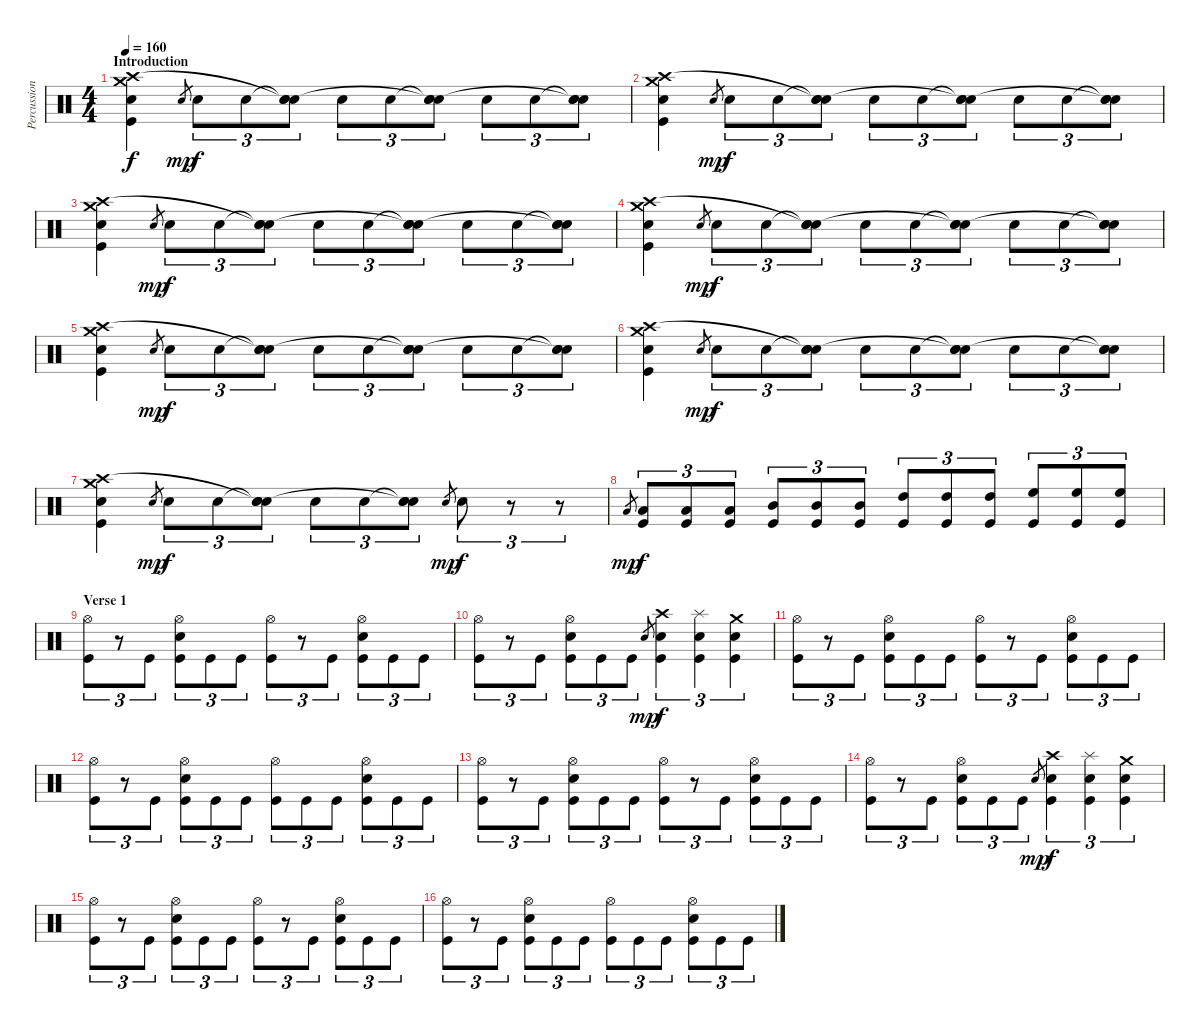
\track ("Percussion" "Percussion") {instrument percussion}
\staff {score}
\articulation defaults
\ts (4 4)
\section ("" "Introduction")
\tempo 160
\clef neutral
\ks c
("Crash medium (hit)" "Crash high (hit)" "Snare (hit) 2" "Kick (hit)").4{dy f} "Snare (hit) 2".8{gr dy mp} "Snare (hit) 2".8{tu (3 2) dy f} "Snare (hit) 2".8{tu (3 2)} ("Snare (hit)"{t} "Snare (hit)"{t} "Snare (hit) 2").8{tu (3 2)} "Snare (hit) 2".8{tu (3 2)} "Snare (hit) 2".8{tu (3 2)} ("Snare (hit)"{t} "Snare (hit)"{t} "Snare (hit) 2").8{tu (3 2)} "Snare (hit) 2".8{tu (3 2)} "Snare (hit) 2".8{tu (3 2)} ("Snare (hit)"{t} "Snare (hit)"{t} "Snare (hit) 2").8{tu (3 2)} |
("Crash medium (hit)" "Crash high (hit)" "Snare (hit) 2" "Kick (hit)").4 "Snare (hit) 2".8{gr dy mp} "Snare (hit) 2".8{tu (3 2) dy f} "Snare (hit) 2".8{tu (3 2)} ("Snare (hit)"{t} "Snare (hit)"{t} "Snare (hit) 2").8{tu (3 2)} "Snare (hit) 2".8{tu (3 2)} "Snare (hit) 2".8{tu (3 2)} ("Snare (hit)"{t} "Snare (hit)"{t} "Snare (hit) 2").8{tu (3 2)} "Snare (hit) 2".8{tu (3 2)} "Snare (hit) 2".8{tu (3 2)} ("Snare (hit)"{t} "Snare (hit)"{t} "Snare (hit) 2").8{tu (3 2)} |
("Crash medium (hit)" "Crash high (hit)" "Snare (hit) 2" "Kick (hit)").4 "Snare (hit) 2".8{gr dy mp} "Snare (hit) 2".8{tu (3 2) dy f} "Snare (hit) 2".8{tu (3 2)} ("Snare (hit)"{t} "Snare (hit)"{t} "Snare (hit) 2").8{tu (3 2)} "Snare (hit) 2".8{tu (3 2)} "Snare (hit) 2".8{tu (3 2)} ("Snare (hit)"{t} "Snare (hit)"{t} "Snare (hit) 2").8{tu (3 2)} "Snare (hit) 2".8{tu (3 2)} "Snare (hit) 2".8{tu (3 2)} ("Snare (hit)"{t} "Snare (hit)"{t} "Snare (hit) 2").8{tu (3 2)} |
("Crash medium (hit)" "Crash high (hit)" "Snare (hit) 2" "Kick (hit)").4 "Snare (hit) 2".8{gr dy mp} "Snare (hit) 2".8{tu (3 2) dy f} "Snare (hit) 2".8{tu (3 2)} ("Snare (hit)"{t} "Snare (hit)"{t} "Snare (hit) 2").8{tu (3 2)} "Snare (hit) 2".8{tu (3 2)} "Snare (hit) 2".8{tu (3 2)} ("Snare (hit)"{t} "Snare (hit)"{t} "Snare (hit) 2").8{tu (3 2)} "Snare (hit) 2".8{tu (3 2)} "Snare (hit) 2".8{tu (3 2)} ("Snare (hit)"{t} "Snare (hit)"{t} "Snare (hit) 2").8{tu (3 2)} |
("Crash medium (hit)" "Crash high (hit)" "Snare (hit) 2" "Kick (hit)").4 "Snare (hit) 2".8{gr dy mp} "Snare (hit) 2".8{tu (3 2) dy f} "Snare (hit) 2".8{tu (3 2)} ("Snare (hit)"{t} "Snare (hit)"{t} "Snare (hit) 2").8{tu (3 2)} "Snare (hit) 2".8{tu (3 2)} "Snare (hit) 2".8{tu (3 2)} ("Snare (hit)"{t} "Snare (hit)"{t} "Snare (hit) 2").8{tu (3 2)} "Snare (hit) 2".8{tu (3 2)} "Snare (hit) 2".8{tu (3 2)} ("Snare (hit)"{t} "Snare (hit)"{t} "Snare (hit) 2").8{tu (3 2)} |
("Crash medium (hit)" "Crash high (hit)" "Snare (hit) 2" "Kick (hit)").4 "Snare (hit) 2".8{gr dy mp} "Snare (hit) 2".8{tu (3 2) dy f} "Snare (hit) 2".8{tu (3 2)} ("Snare (hit)"{t} "Snare (hit)"{t} "Snare (hit) 2").8{tu (3 2)} "Snare (hit) 2".8{tu (3 2)} "Snare (hit) 2".8{tu (3 2)} ("Snare (hit)"{t} "Snare (hit)"{t} "Snare (hit) 2").8{tu (3 2)} "Snare (hit) 2".8{tu (3 2)} "Snare (hit) 2".8{tu (3 2)} ("Snare (hit)"{t} "Snare (hit)"{t} "Snare (hit) 2").8{tu (3 2)} |
("Crash medium (hit)" "Crash high (hit)" "Snare (hit) 2" "Kick (hit)").4 "Snare (hit) 2".8{gr dy mp} "Snare (hit) 2".8{tu (3 2) dy f} "Snare (hit) 2".8{tu (3 2)} ("Snare (hit)"{t} "Snare (hit)"{t} "Snare (hit) 2").8{tu (3 2)} "Snare (hit) 2".8{tu (3 2)} "Snare (hit) 2".8{tu (3 2)} ("Snare (hit)"{t} "Snare (hit)"{t} "Snare (hit) 2").8{tu (3 2)} "Snare (hit) 2".8{gr dy mp} "Snare (hit) 2".8{tu (3 2) dy f} r.8{tu (3 2)} r.8{tu (3 2)} |
"Low Tom (hit)".8{gr dy mp} ("Low Tom (hit)" "Kick (hit)").8{tu (3 2) dy f} ("Low Tom (hit)" "Kick (hit)").8{tu (3 2)} ("Low Tom (hit)" "Kick (hit)").8{tu (3 2)} ("Mid Tom (hit)" "Kick (hit)").8{tu (3 2)} ("Mid Tom (hit)" "Kick (hit)").8{tu (3 2)} ("Mid Tom (hit)" "Kick (hit)").8{tu (3 2)} ("High Tom (hit)" "Kick (hit)").8{tu (3 2)} ("High Tom (hit)" "Kick (hit)").8{tu (3 2)} ("High Tom (hit)" "Kick (hit)").8{tu (3 2)} ("High Floor Tom (hit)" "Kick (hit)").8{tu (3 2)} ("High Floor Tom (hit)" "Kick (hit)").8{tu (3 2)} ("High Floor Tom (hit)" "Kick (hit)").8{tu (3 2)} |
\section ("" "Verse 1")
("Hi-Hat (open)" "Kick (hit)").8{tu (3 2)} r.8{tu (3 2)} "Kick (hit)".8{tu (3 2)} ("Hi-Hat (open)" "Snare (hit) 2" "Kick (hit)").8{tu (3 2)} "Kick (hit)".8{tu (3 2)} "Kick (hit)".8{tu (3 2)} ("Hi-Hat (open)" "Kick (hit)").8{tu (3 2)} r.8{tu (3 2)} "Kick (hit)".8{tu (3 2)} ("Hi-Hat (open)" "Snare (hit) 2" "Kick (hit)").8{tu (3 2)} "Kick (hit)".8{tu (3 2)} "Kick (hit)".8{tu (3 2)} |
("Hi-Hat (open)" "Kick (hit)").8{tu (3 2)} r.8{tu (3 2)} "Kick (hit)".8{tu (3 2)} ("Hi-Hat (open)" "Snare (hit) 2" "Kick (hit)").8{tu (3 2)} "Kick (hit)".8{tu (3 2)} "Kick (hit)".8{tu (3 2)} "Snare (hit) 2".8{gr dy mp} ("Snare (hit) 2" "Crash high (hit)" "Kick (hit)").4{tu (3 2) dy f} ("Snare (hit) 2" "Splash (hit)" "Kick (hit)").4{tu (3 2)} ("Snare (hit) 2" "Crash medium (hit)" "Kick (hit)").4{tu (3 2)} |
("Hi-Hat (open)" "Kick (hit)").8{tu (3 2)} r.8{tu (3 2)} "Kick (hit)".8{tu (3 2)} ("Hi-Hat (open)" "Snare (hit) 2" "Kick (hit)").8{tu (3 2)} "Kick (hit)".8{tu (3 2)} "Kick (hit)".8{tu (3 2)} ("Hi-Hat (open)" "Kick (hit)").8{tu (3 2)} r.8{tu (3 2)} "Kick (hit)".8{tu (3 2)} ("Hi-Hat (open)" "Snare (hit) 2" "Kick (hit)").8{tu (3 2)} "Kick (hit)".8{tu (3 2)} "Kick (hit)".8{tu (3 2)} |
("Hi-Hat (open)" "Kick (hit)").8{tu (3 2)} r.8{tu (3 2)} "Kick (hit)".8{tu (3 2)} ("Hi-Hat (open)" "Snare (hit) 2" "Kick (hit)").8{tu (3 2)} "Kick (hit)".8{tu (3 2)} "Kick (hit)".8{tu (3 2)} ("Hi-Hat (open)" "Kick (hit)").8{tu (3 2)} "Kick (hit)".8{tu (3 2)} "Kick (hit)".8{tu (3 2)} ("Hi-Hat (open)" "Snare (hit) 2" "Kick (hit)").8{tu (3 2)} "Kick (hit)".8{tu (3 2)} "Kick (hit)".8{tu (3 2)} |
("Hi-Hat (open)" "Kick (hit)").8{tu (3 2)} r.8{tu (3 2)} "Kick (hit)".8{tu (3 2)} ("Hi-Hat (open)" "Snare (hit) 2" "Kick (hit)").8{tu (3 2)} "Kick (hit)".8{tu (3 2)} "Kick (hit)".8{tu (3 2)} ("Hi-Hat (open)" "Kick (hit)").8{tu (3 2)} r.8{tu (3 2)} "Kick (hit)".8{tu (3 2)} ("Hi-Hat (open)" "Snare (hit) 2" "Kick (hit)").8{tu (3 2)} "Kick (hit)".8{tu (3 2)} "Kick (hit)".8{tu (3 2)} |
("Hi-Hat (open)" "Kick (hit)").8{tu (3 2)} r.8{tu (3 2)} "Kick (hit)".8{tu (3 2)} ("Hi-Hat (open)" "Snare (hit) 2" "Kick (hit)").8{tu (3 2)} "Kick (hit)".8{tu (3 2)} "Kick (hit)".8{tu (3 2)} "Snare (hit) 2".8{gr dy mp} ("Snare (hit) 2" "Crash high (hit)" "Kick (hit)").4{tu (3 2) dy f} ("Snare (hit) 2" "Splash (hit)" "Kick (hit)").4{tu (3 2)} ("Snare (hit) 2" "Crash medium (hit)" "Kick (hit)").4{tu (3 2)} |
("Hi-Hat (open)" "Kick (hit)").8{tu (3 2)} r.8{tu (3 2)} "Kick (hit)".8{tu (3 2)} ("Hi-Hat (open)" "Snare (hit) 2" "Kick (hit)").8{tu (3 2)} "Kick (hit)".8{tu (3 2)} "Kick (hit)".8{tu (3 2)} ("Hi-Hat (open)" "Kick (hit)").8{tu (3 2)} r.8{tu (3 2)} "Kick (hit)".8{tu (3 2)} ("Hi-Hat (open)" "Snare (hit) 2" "Kick (hit)").8{tu (3 2)} "Kick (hit)".8{tu (3 2)} "Kick (hit)".8{tu (3 2)} |
("Hi-Hat (open)" "Kick (hit)").8{tu (3 2)} r.8{tu (3 2)} "Kick (hit)".8{tu (3 2)} ("Hi-Hat (open)" "Snare (hit) 2" "Kick (hit)").8{tu (3 2)} "Kick (hit)".8{tu (3 2)} "Kick (hit)".8{tu (3 2)} ("Hi-Hat (open)" "Kick (hit)").8{tu (3 2)} "Kick (hit)".8{tu (3 2)} "Kick (hit)".8{tu (3 2)} ("Hi-Hat (open)" "Snare (hit) 2" "Kick (hit)").8{tu (3 2)} "Kick (hit)".8{tu (3 2)} "Kick (hit)".8{tu (3 2)}
